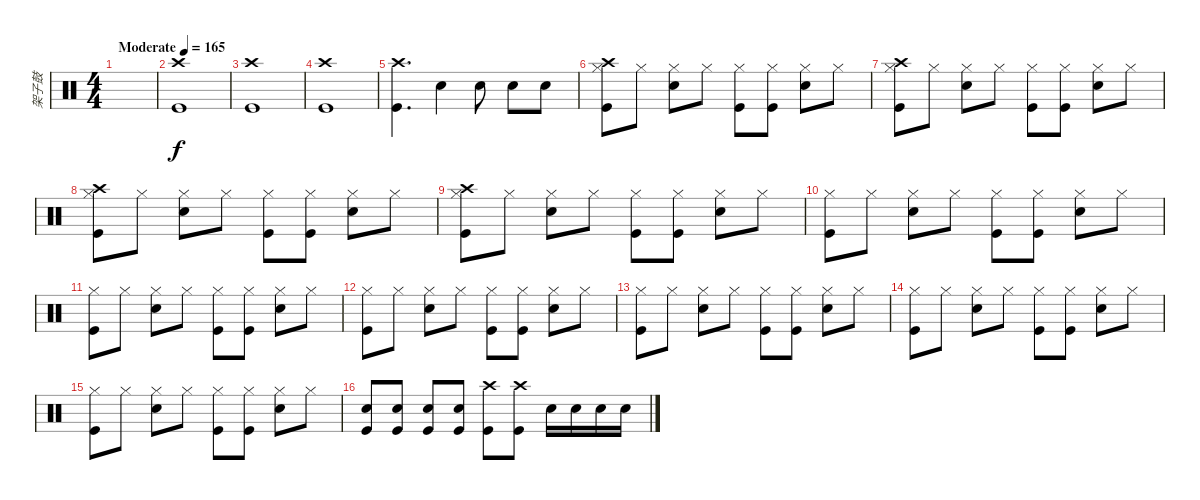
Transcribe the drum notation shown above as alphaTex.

\track ("架子鼓" "架子鼓") {instrument percussion}
\staff {score}
\articulation defaults
\ts (4 4)
\tempo (165 "Moderate")
\clef neutral
\ks c
|
("Crash high (hit)" "Kick (hit)").1 |
("Crash high (hit)" "Kick (hit)").1 |
("Crash high (hit)" "Kick (hit)").1 |
("Crash high (hit)" "Kick (hit)").4{d} "Snare (hit) 2".4 "Snare (hit) 2".8 "Snare (hit) 2".8 "Snare (hit) 2".8 |
("Hi-Hat (closed)" "Kick (hit)" "Crash high (hit)").8 "Hi-Hat (closed)".8 ("Hi-Hat (closed)" "Snare (hit) 2").8 "Hi-Hat (closed)".8 ("Hi-Hat (closed)" "Kick (hit)").8 ("Hi-Hat (closed)" "Kick (hit)").8 ("Hi-Hat (closed)" "Snare (hit) 2").8 "Hi-Hat (closed)".8 |
("Hi-Hat (closed)" "Kick (hit)" "Crash high (hit)").8 "Hi-Hat (closed)".8 ("Hi-Hat (closed)" "Snare (hit) 2").8 "Hi-Hat (closed)".8 ("Hi-Hat (closed)" "Kick (hit)").8 ("Hi-Hat (closed)" "Kick (hit)").8 ("Hi-Hat (closed)" "Snare (hit) 2").8 "Hi-Hat (closed)".8 |
("Hi-Hat (closed)" "Kick (hit)" "Crash high (hit)").8 "Hi-Hat (closed)".8 ("Hi-Hat (closed)" "Snare (hit) 2").8 "Hi-Hat (closed)".8 ("Hi-Hat (closed)" "Kick (hit)").8 ("Hi-Hat (closed)" "Kick (hit)").8 ("Hi-Hat (closed)" "Snare (hit) 2").8 "Hi-Hat (closed)".8 |
("Hi-Hat (closed)" "Kick (hit)" "Crash high (hit)").8 "Hi-Hat (closed)".8 ("Hi-Hat (closed)" "Snare (hit) 2").8 "Hi-Hat (closed)".8 ("Hi-Hat (closed)" "Kick (hit)").8 ("Hi-Hat (closed)" "Kick (hit)").8 ("Hi-Hat (closed)" "Snare (hit) 2").8 "Hi-Hat (closed)".8 |
("Hi-Hat (closed)" "Kick (hit)").8 "Hi-Hat (closed)".8 ("Hi-Hat (closed)" "Snare (hit) 2").8 "Hi-Hat (closed)".8 ("Hi-Hat (closed)" "Kick (hit)").8 ("Hi-Hat (closed)" "Kick (hit)").8 ("Hi-Hat (closed)" "Snare (hit) 2").8 "Hi-Hat (closed)".8 |
("Hi-Hat (closed)" "Kick (hit)").8 "Hi-Hat (closed)".8 ("Hi-Hat (closed)" "Snare (hit) 2").8 "Hi-Hat (closed)".8 ("Hi-Hat (closed)" "Kick (hit)").8 ("Hi-Hat (closed)" "Kick (hit)").8 ("Hi-Hat (closed)" "Snare (hit) 2").8 "Hi-Hat (closed)".8 |
("Hi-Hat (closed)" "Kick (hit)").8 "Hi-Hat (closed)".8 ("Hi-Hat (closed)" "Snare (hit) 2").8 "Hi-Hat (closed)".8 ("Hi-Hat (closed)" "Kick (hit)").8 ("Hi-Hat (closed)" "Kick (hit)").8 ("Hi-Hat (closed)" "Snare (hit) 2").8 "Hi-Hat (closed)".8 |
("Hi-Hat (closed)" "Kick (hit)").8 "Hi-Hat (closed)".8 ("Hi-Hat (closed)" "Snare (hit) 2").8 "Hi-Hat (closed)".8 ("Hi-Hat (closed)" "Kick (hit)").8 ("Hi-Hat (closed)" "Kick (hit)").8 ("Hi-Hat (closed)" "Snare (hit) 2").8 "Hi-Hat (closed)".8 |
("Hi-Hat (closed)" "Kick (hit)").8 "Hi-Hat (closed)".8 ("Hi-Hat (closed)" "Snare (hit) 2").8 "Hi-Hat (closed)".8 ("Hi-Hat (closed)" "Kick (hit)").8 ("Hi-Hat (closed)" "Kick (hit)").8 ("Hi-Hat (closed)" "Snare (hit) 2").8 "Hi-Hat (closed)".8 |
("Hi-Hat (closed)" "Kick (hit)").8 "Hi-Hat (closed)".8 ("Hi-Hat (closed)" "Snare (hit) 2").8 "Hi-Hat (closed)".8 ("Hi-Hat (closed)" "Kick (hit)").8 ("Hi-Hat (closed)" "Kick (hit)").8 ("Hi-Hat (closed)" "Snare (hit) 2").8 "Hi-Hat (closed)".8 |
("Snare (hit) 2" "Kick (hit)").8 ("Snare (hit) 2" "Kick (hit)").8 ("Snare (hit) 2" "Kick (hit)").8 ("Snare (hit) 2" "Kick (hit)").8 ("Crash high (hit)" "Kick (hit)").8 ("Crash high (hit)" "Kick (hit)").8 "Snare (hit) 2".16 "Snare (hit) 2".16 "Snare (hit) 2".16 "Snare (hit) 2".16
